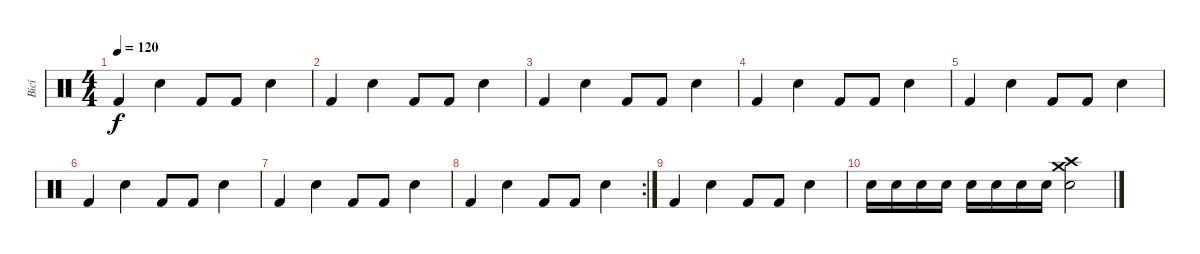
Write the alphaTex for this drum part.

\track ("Bicí" "Bicí") {instrument percussion}
\staff {score}
\articulation defaults
\ts (4 4)
\tempo 120
\clef neutral
\ks c "Kick (hit) 2".4{dy f} "Electric Snare (hit)".4 "Kick (hit) 2".8 "Kick (hit) 2".8 "Electric Snare (hit)".4
|
"Kick (hit) 2".4 "Electric Snare (hit)".4 "Kick (hit) 2".8 "Kick (hit) 2".8 "Electric Snare (hit)".4 |
"Kick (hit) 2".4 "Electric Snare (hit)".4 "Kick (hit) 2".8 "Kick (hit) 2".8 "Electric Snare (hit)".4 |
"Kick (hit) 2".4 "Electric Snare (hit)".4 "Kick (hit) 2".8 "Kick (hit) 2".8 "Electric Snare (hit)".4 |
"Kick (hit) 2".4 "Electric Snare (hit)".4 "Kick (hit) 2".8 "Kick (hit) 2".8 "Electric Snare (hit)".4 |
"Kick (hit) 2".4 "Electric Snare (hit)".4 "Kick (hit) 2".8 "Kick (hit) 2".8 "Electric Snare (hit)".4 |
"Kick (hit) 2".4 "Electric Snare (hit)".4 "Kick (hit) 2".8 "Kick (hit) 2".8 "Electric Snare (hit)".4 |
\rc 2 "Kick (hit) 2".4 "Electric Snare (hit)".4 "Kick (hit) 2".8 "Kick (hit) 2".8 "Electric Snare (hit)".4
|
"Kick (hit) 2".4 "Electric Snare (hit)".4 "Kick (hit) 2".8 "Kick (hit) 2".8 "Electric Snare (hit)".4 |
"Electric Snare (hit)".16 "Electric Snare (hit)".16 "Electric Snare (hit)".16 "Electric Snare (hit)".16 "Electric Snare (hit)".16 "Electric Snare (hit)".16 "Electric Snare (hit)".16 "Electric Snare (hit)".16 ("Crash high (hit)" "Crash medium (hit)" "Electric Snare (hit)").2
